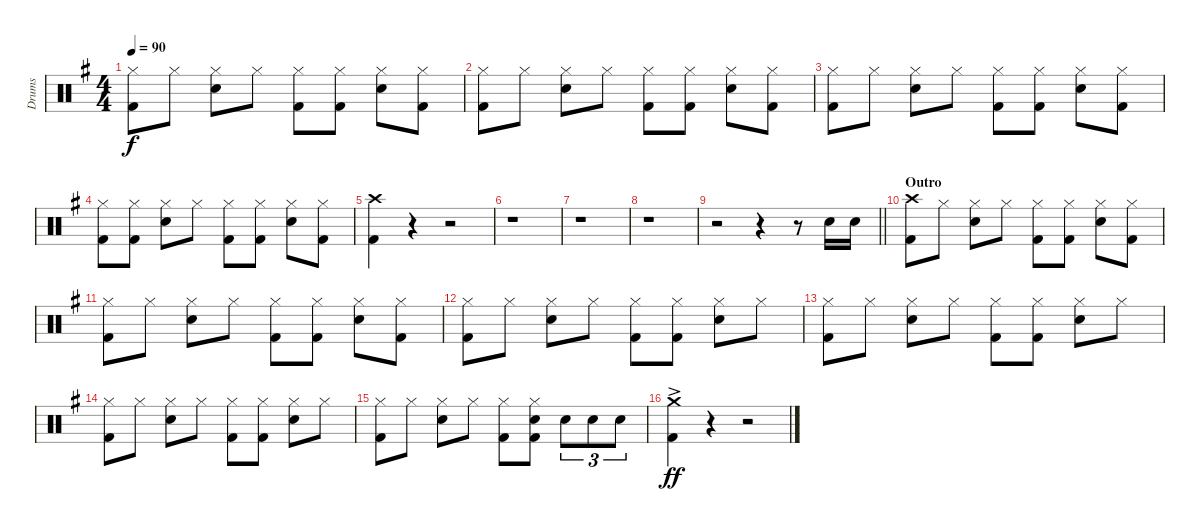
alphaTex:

\track ("Drums" "Drums") {instrument percussion}
\staff {score}
\articulation defaults
\ts (4 4)
\tempo 90
\clef neutral
\ks g
("Hi-Hat (closed)" "Kick (hit) 2").8{dy f} "Hi-Hat (closed)".8 ("Hi-Hat (closed)" "Electric Snare (hit)").8 "Hi-Hat (closed)".8 ("Hi-Hat (closed)" "Kick (hit) 2").8 ("Hi-Hat (closed)" "Kick (hit) 2").8 ("Hi-Hat (closed)" "Electric Snare (hit)").8 ("Hi-Hat (closed)" "Kick (hit) 2").8 |
("Hi-Hat (closed)" "Kick (hit) 2").8 "Hi-Hat (closed)".8 ("Hi-Hat (closed)" "Electric Snare (hit)").8 "Hi-Hat (closed)".8 ("Hi-Hat (closed)" "Kick (hit) 2").8 ("Hi-Hat (closed)" "Kick (hit) 2").8 ("Hi-Hat (closed)" "Electric Snare (hit)").8 ("Hi-Hat (closed)" "Kick (hit) 2").8 |
("Hi-Hat (closed)" "Kick (hit) 2").8 "Hi-Hat (closed)".8 ("Hi-Hat (closed)" "Electric Snare (hit)").8 "Hi-Hat (closed)".8 ("Hi-Hat (closed)" "Kick (hit) 2").8 ("Hi-Hat (closed)" "Kick (hit) 2").8 ("Hi-Hat (closed)" "Electric Snare (hit)").8 ("Hi-Hat (closed)" "Kick (hit) 2").8 |
("Hi-Hat (closed)" "Kick (hit) 2").8 ("Hi-Hat (closed)" "Kick (hit) 2").8 ("Hi-Hat (closed)" "Electric Snare (hit)").8 "Hi-Hat (closed)".8 ("Hi-Hat (closed)" "Kick (hit) 2").8 ("Hi-Hat (closed)" "Kick (hit) 2").8 ("Hi-Hat (closed)" "Electric Snare (hit)").8 ("Hi-Hat (closed)" "Kick (hit) 2").8 |
("Crash high (hit)" "Kick (hit) 2").4 r.4 r.2 |
r.1 |
r.1 |
r.1 |
\barLineRight lightlight
r.2 r.4 r.8 "Electric Snare (hit)".16 "Electric Snare (hit)".16 |
\section ("" "Outro")
("Crash high (hit)" "Kick (hit) 2").8 "Hi-Hat (closed)".8 ("Hi-Hat (closed)" "Electric Snare (hit)").8 "Hi-Hat (closed)".8 ("Hi-Hat (closed)" "Kick (hit) 2").8 ("Hi-Hat (closed)" "Kick (hit) 2").8 ("Hi-Hat (closed)" "Electric Snare (hit)").8 ("Hi-Hat (closed)" "Kick (hit) 2").8 |
("Hi-Hat (closed)" "Kick (hit) 2").8 "Hi-Hat (closed)".8 ("Hi-Hat (closed)" "Electric Snare (hit)").8 "Hi-Hat (closed)".8 ("Hi-Hat (closed)" "Kick (hit) 2").8 ("Hi-Hat (closed)" "Kick (hit) 2").8 ("Hi-Hat (closed)" "Electric Snare (hit)").8 ("Hi-Hat (closed)" "Kick (hit) 2").8 |
("Hi-Hat (closed)" "Kick (hit) 2").8 "Hi-Hat (closed)".8 ("Hi-Hat (closed)" "Electric Snare (hit)").8 "Hi-Hat (closed)".8 ("Hi-Hat (closed)" "Kick (hit) 2").8 ("Hi-Hat (closed)" "Kick (hit) 2").8 ("Hi-Hat (closed)" "Electric Snare (hit)").8 "Hi-Hat (closed)".8 |
("Hi-Hat (closed)" "Kick (hit) 2").8 "Hi-Hat (closed)".8 ("Hi-Hat (closed)" "Electric Snare (hit)").8 "Hi-Hat (closed)".8 ("Hi-Hat (closed)" "Kick (hit) 2").8 ("Hi-Hat (closed)" "Kick (hit) 2").8 ("Hi-Hat (closed)" "Electric Snare (hit)").8 "Hi-Hat (closed)".8 |
("Hi-Hat (closed)" "Kick (hit) 2").8 "Hi-Hat (closed)".8 ("Hi-Hat (closed)" "Electric Snare (hit)").8 "Hi-Hat (closed)".8 ("Hi-Hat (closed)" "Kick (hit) 2").8 ("Hi-Hat (closed)" "Kick (hit) 2").8 ("Hi-Hat (closed)" "Electric Snare (hit)").8 "Hi-Hat (closed)".8 |
("Hi-Hat (closed)" "Kick (hit) 2").8 "Hi-Hat (closed)".8 ("Hi-Hat (closed)" "Electric Snare (hit)").8 "Hi-Hat (closed)".8 ("Hi-Hat (closed)" "Kick (hit) 2").8 ("Hi-Hat (closed)" "Electric Snare (hit)" "Kick (hit) 2").8 "Electric Snare (hit)".8{tu (3 2)} "Electric Snare (hit)".8{tu (3 2)} "Electric Snare (hit)".8{tu (3 2)} |
("Crash medium (hit)"{ac} "Kick (hit) 2").4{dy ff} r.4 r.2
